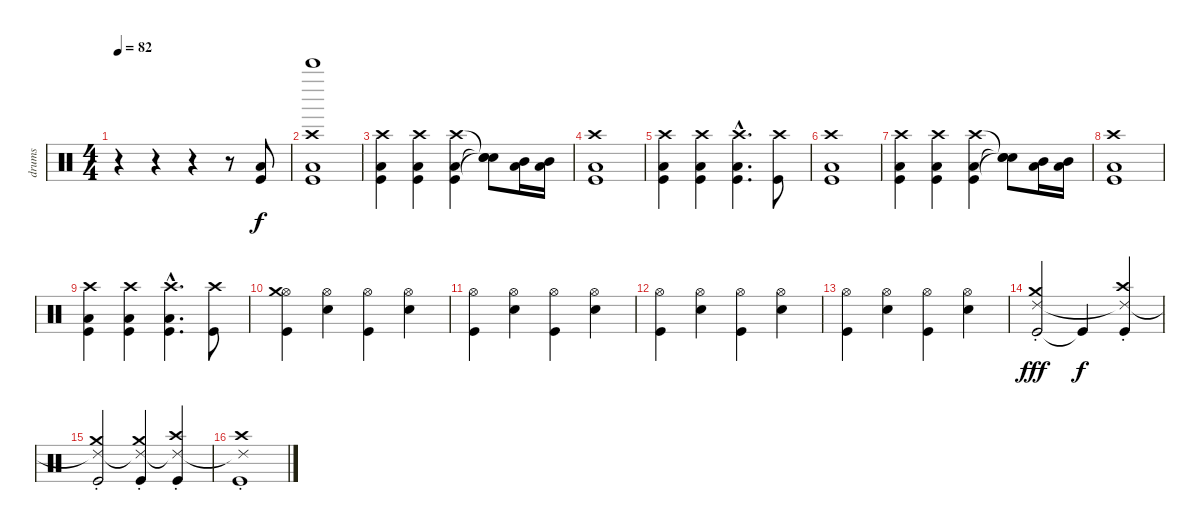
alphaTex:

\track ("drums" "drums") {instrument percussion}
\staff {score}
\articulation defaults
\ts (4 4)
\tempo 82
\clef neutral
\ks c
r.4{dy f} r.4 r.4 r.8 ("Kick (hit)" "Low Tom (hit)").8 |
("Kick (hit)" "Crash high (hit)" "Low Tom (hit)" "Bell Tree (hit)").1 |
("Crash high (hit)" "Kick (hit)" "Low Tom (hit)").4 ("Crash high (hit)" "Kick (hit)" "Low Tom (hit)").4 ("Crash high (hit)" "Kick (hit)" "Low Tom (hit)").4 ("Snare (hit)"{t} "Snare (hit)"{t} "Snare (hit)"{t}).8 ("Mid Tom (hit)" "Low Tom (hit)").16 ("Mid Tom (hit)" "Low Tom (hit)").16 |
("Kick (hit)" "Crash high (hit)" "Low Tom (hit)").1 |
("Crash high (hit)" "Kick (hit)" "Low Tom (hit)").4 ("Crash high (hit)" "Kick (hit)" "Low Tom (hit)").4 ("Crash high (hit)"{hac} "Kick (hit)"{hac} "Low Tom (hit)"{hac}).4{d} ("Crash high (hit)" "Kick (hit)").8 |
("Kick (hit)" "Crash high (hit)" "Low Tom (hit)").1 |
("Crash high (hit)" "Kick (hit)" "Low Tom (hit)").4 ("Crash high (hit)" "Kick (hit)" "Low Tom (hit)").4 ("Crash high (hit)" "Kick (hit)" "Low Tom (hit)").4 ("Snare (hit)"{t} "Snare (hit)"{t} "Snare (hit)"{t}).8 ("Mid Tom (hit)" "Low Tom (hit)").16 ("Mid Tom (hit)" "Low Tom (hit)").16 |
("Kick (hit)" "Crash high (hit)" "Low Tom (hit)").1 |
("Crash high (hit)" "Kick (hit)" "Low Tom (hit)").4 ("Crash high (hit)" "Kick (hit)" "Low Tom (hit)").4 ("Crash high (hit)"{hac} "Kick (hit)"{hac} "Low Tom (hit)"{hac}).4{d} ("Crash high (hit)" "Kick (hit)").8 |
("Hi-Hat (open)" "Crash medium (hit)" "Kick (hit)").4 ("Hi-Hat (open)" "Snare (hit) 2").4 ("Hi-Hat (open)" "Kick (hit)").4 ("Hi-Hat (open)" "Snare (hit) 2").4 |
("Hi-Hat (open)" "Kick (hit)").4 ("Hi-Hat (open)" "Snare (hit) 2").4 ("Hi-Hat (open)" "Kick (hit)").4 ("Hi-Hat (open)" "Snare (hit) 2").4 |
("Hi-Hat (open)" "Kick (hit)").4 ("Hi-Hat (open)" "Snare (hit) 2").4 ("Hi-Hat (open)" "Kick (hit)").4 ("Hi-Hat (open)" "Snare (hit) 2").4 |
("Hi-Hat (open)" "Kick (hit)").4 ("Hi-Hat (open)" "Snare (hit) 2").4 ("Hi-Hat (open)" "Kick (hit)").4 ("Hi-Hat (open)" "Snare (hit) 2").4 |
("Kick (hit)" "Crash medium (hit)" "Ride (choke) 2").2{dy fff} "Kick (hit)"{t}.4{dy f} ("Kick (hit)" "Crash high (hit)" "Ride (choke) 2"{t}).4 |
("Kick (hit)" "Crash medium (hit)" "Ride (choke) 2"{t}).2 ("Kick (hit)" "Crash medium (hit)" "Ride (choke) 2"{t}).4 ("Kick (hit)" "Crash high (hit)" "Ride (choke) 2"{t}).4 |
("Kick (hit)" "Crash high (hit)" "Ride (choke) 2"{t}).1
